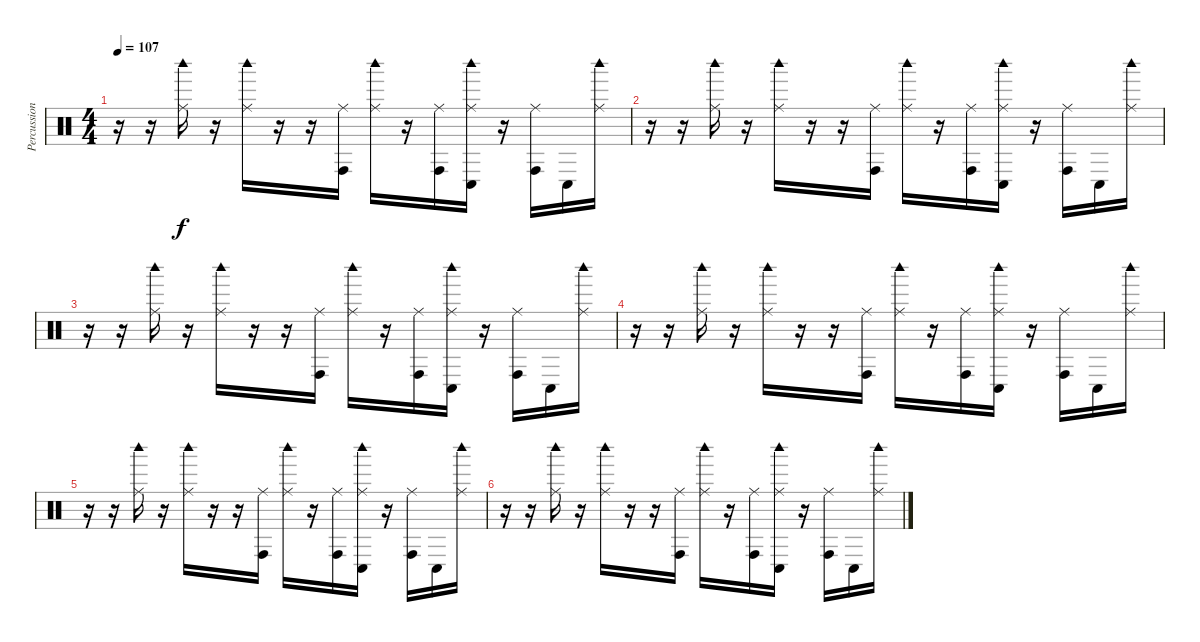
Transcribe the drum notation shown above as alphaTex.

\track ("Percussioni" "Percussion") {instrument percussion}
\staff {score}
\articulation defaults
\ts (4 4)
\tempo 107
\clef neutral
\ks c
r.16{dy f} r.16 ("Woodblock high (hit)" "Ride (middle)").16 r.16 ("Woodblock high (hit)" "Ride (middle)").16 r.16 r.16 ("Ride (middle)" "Conga high (hit)").16 ("Woodblock high (hit)" "Ride (middle)").16 r.16 ("Ride (middle)" "Conga high (hit)").16 ("Woodblock high (hit)" "Ride (middle)" "Conga low (hit)").16 r.16 ("Ride (middle)" "Conga high (hit)").16 "Conga low (hit)".16 ("Woodblock high (hit)" "Ride (middle)").16 |
r.16 r.16 ("Woodblock high (hit)" "Ride (middle)").16 r.16 ("Woodblock high (hit)" "Ride (middle)").16 r.16 r.16 ("Ride (middle)" "Conga high (hit)").16 ("Woodblock high (hit)" "Ride (middle)").16 r.16 ("Ride (middle)" "Conga high (hit)").16 ("Woodblock high (hit)" "Ride (middle)" "Conga low (hit)").16 r.16 ("Ride (middle)" "Conga high (hit)").16 "Conga low (hit)".16 ("Woodblock high (hit)" "Ride (middle)").16 |
r.16 r.16 ("Woodblock high (hit)" "Ride (middle)").16 r.16 ("Woodblock high (hit)" "Ride (middle)").16 r.16 r.16 ("Ride (middle)" "Conga high (hit)").16 ("Woodblock high (hit)" "Ride (middle)").16 r.16 ("Ride (middle)" "Conga high (hit)").16 ("Woodblock high (hit)" "Ride (middle)" "Conga low (hit)").16 r.16 ("Ride (middle)" "Conga high (hit)").16 "Conga low (hit)".16 ("Woodblock high (hit)" "Ride (middle)").16 |
r.16 r.16 ("Woodblock high (hit)" "Ride (middle)").16 r.16 ("Woodblock high (hit)" "Ride (middle)").16 r.16 r.16 ("Ride (middle)" "Conga high (hit)").16 ("Woodblock high (hit)" "Ride (middle)").16 r.16 ("Ride (middle)" "Conga high (hit)").16 ("Woodblock high (hit)" "Ride (middle)" "Conga low (hit)").16 r.16 ("Ride (middle)" "Conga high (hit)").16 "Conga low (hit)".16 ("Woodblock high (hit)" "Ride (middle)").16 |
r.16 r.16 ("Woodblock high (hit)" "Ride (middle)").16 r.16 ("Woodblock high (hit)" "Ride (middle)").16 r.16 r.16 ("Ride (middle)" "Conga high (hit)").16 ("Woodblock high (hit)" "Ride (middle)").16 r.16 ("Ride (middle)" "Conga high (hit)").16 ("Woodblock high (hit)" "Ride (middle)" "Conga low (hit)").16 r.16 ("Ride (middle)" "Conga high (hit)").16 "Conga low (hit)".16 ("Woodblock high (hit)" "Ride (middle)").16 |
r.16 r.16 ("Woodblock high (hit)" "Ride (middle)").16 r.16 ("Woodblock high (hit)" "Ride (middle)").16 r.16 r.16 ("Ride (middle)" "Conga high (hit)").16 ("Woodblock high (hit)" "Ride (middle)").16 r.16 ("Ride (middle)" "Conga high (hit)").16 ("Woodblock high (hit)" "Ride (middle)" "Conga low (hit)").16 r.16 ("Ride (middle)" "Conga high (hit)").16 "Conga low (hit)".16 ("Woodblock high (hit)" "Ride (middle)").16
